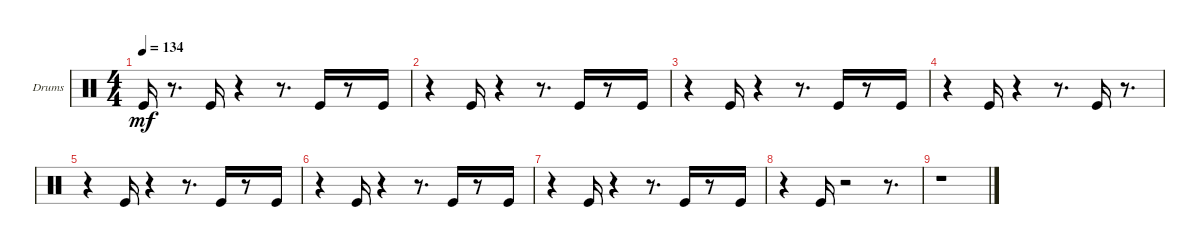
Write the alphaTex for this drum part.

\bracketExtendMode groupsimilarinstruments
\firstSystemTrackNameOrientation horizontal
\otherSystemsTrackNameOrientation horizontal
\track ("Drums" "Drums") {instrument percussion}
\staff {score}
\articulation defaults
\ts (4 4)
\tempo 134
\clef neutral
\ks c "Kick (hit)".16{dy mf}
r.8{d} "Kick (hit)".16 r.4 r.8{d} "Kick (hit)".16 r.8 "Kick (hit)".16 |
r.4 "Kick (hit)".16 r.4 r.8{d} "Kick (hit)".16 r.8 "Kick (hit)".16 |
r.4 "Kick (hit)".16 r.4 r.8{d} "Kick (hit)".16 r.8 "Kick (hit)".16 |
r.4 "Kick (hit)".16 r.4 r.8{d} "Kick (hit)".16 r.8{d} |
r.4 "Kick (hit)".16 r.4 r.8{d} "Kick (hit)".16 r.8 "Kick (hit)".16 |
r.4 "Kick (hit)".16 r.4 r.8{d} "Kick (hit)".16 r.8 "Kick (hit)".16 |
r.4 "Kick (hit)".16 r.4 r.8{d} "Kick (hit)".16 r.8 "Kick (hit)".16 |
r.4 "Kick (hit)".16 r.2 r.8{d} |
r.1
